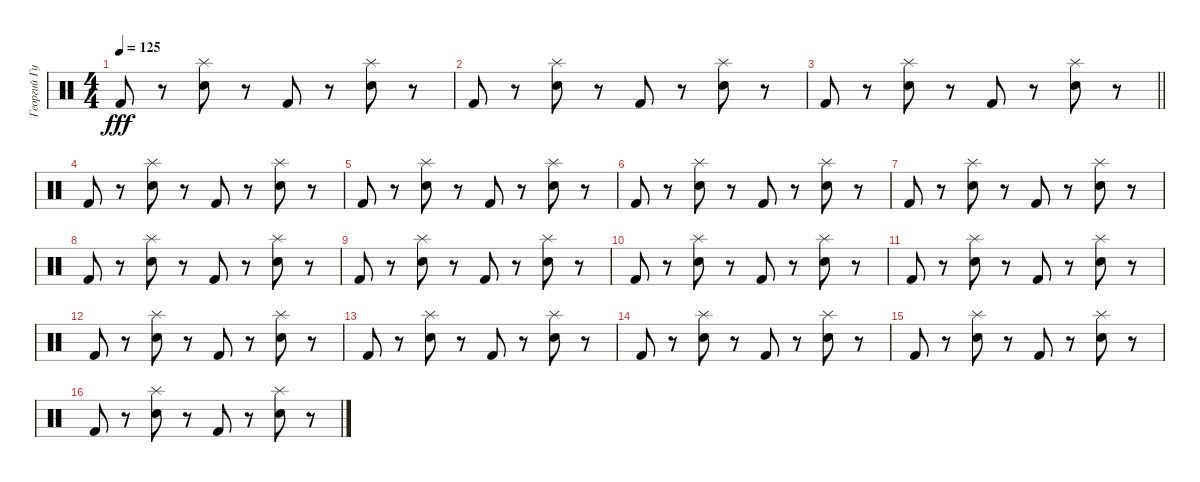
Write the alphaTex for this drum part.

\track ("Георгий Гурьянов" "Георгий Гу") {instrument percussion}
\staff {score}
\articulation defaults
\ts (4 4)
\tempo 125
\clef neutral
\ks c "Kick (hit) 2".8{dy fff}
r.8 ("Snare (hit) 2" "Splash (hit)").8 r.8 "Kick (hit) 2".8 r.8 ("Snare (hit) 2" "Splash (hit)").8 r.8 |
"Kick (hit) 2".8 r.8 ("Snare (hit) 2" "Splash (hit)").8 r.8 "Kick (hit) 2".8 r.8 ("Snare (hit) 2" "Splash (hit)").8 r.8 |
\barLineRight lightlight "Kick (hit) 2".8
r.8 ("Snare (hit) 2" "Splash (hit)").8 r.8 "Kick (hit) 2".8 r.8 ("Snare (hit) 2" "Splash (hit)").8 r.8 |
"Kick (hit) 2".8 r.8 ("Snare (hit) 2" "Splash (hit)").8 r.8 "Kick (hit) 2".8 r.8 ("Snare (hit) 2" "Splash (hit)").8 r.8 |
"Kick (hit) 2".8 r.8 ("Snare (hit) 2" "Splash (hit)").8 r.8 "Kick (hit) 2".8 r.8 ("Snare (hit) 2" "Splash (hit)").8 r.8 |
"Kick (hit) 2".8 r.8 ("Snare (hit) 2" "Splash (hit)").8 r.8 "Kick (hit) 2".8 r.8 ("Snare (hit) 2" "Splash (hit)").8 r.8 |
"Kick (hit) 2".8 r.8 ("Snare (hit) 2" "Splash (hit)").8 r.8 "Kick (hit) 2".8 r.8 ("Snare (hit) 2" "Splash (hit)").8 r.8 |
"Kick (hit) 2".8 r.8 ("Snare (hit) 2" "Splash (hit)").8 r.8 "Kick (hit) 2".8 r.8 ("Snare (hit) 2" "Splash (hit)").8 r.8 |
"Kick (hit) 2".8 r.8 ("Snare (hit) 2" "Splash (hit)").8 r.8 "Kick (hit) 2".8 r.8 ("Snare (hit) 2" "Splash (hit)").8 r.8 |
"Kick (hit) 2".8 r.8 ("Snare (hit) 2" "Splash (hit)").8 r.8 "Kick (hit) 2".8 r.8 ("Snare (hit) 2" "Splash (hit)").8 r.8 |
"Kick (hit) 2".8 r.8 ("Snare (hit) 2" "Splash (hit)").8 r.8 "Kick (hit) 2".8 r.8 ("Snare (hit) 2" "Splash (hit)").8 r.8 |
"Kick (hit) 2".8 r.8 ("Snare (hit) 2" "Splash (hit)").8 r.8 "Kick (hit) 2".8 r.8 ("Snare (hit) 2" "Splash (hit)").8 r.8 |
"Kick (hit) 2".8 r.8 ("Snare (hit) 2" "Splash (hit)").8 r.8 "Kick (hit) 2".8 r.8 ("Snare (hit) 2" "Splash (hit)").8 r.8 |
"Kick (hit) 2".8 r.8 ("Snare (hit) 2" "Splash (hit)").8 r.8 "Kick (hit) 2".8 r.8 ("Snare (hit) 2" "Splash (hit)").8 r.8 |
"Kick (hit) 2".8 r.8 ("Snare (hit) 2" "Splash (hit)").8 r.8 "Kick (hit) 2".8 r.8 ("Snare (hit) 2" "Splash (hit)").8 r.8 |
"Kick (hit) 2".8 r.8 ("Snare (hit) 2" "Splash (hit)").8 r.8 "Kick (hit) 2".8 r.8 ("Snare (hit) 2" "Splash (hit)").8 r.8
